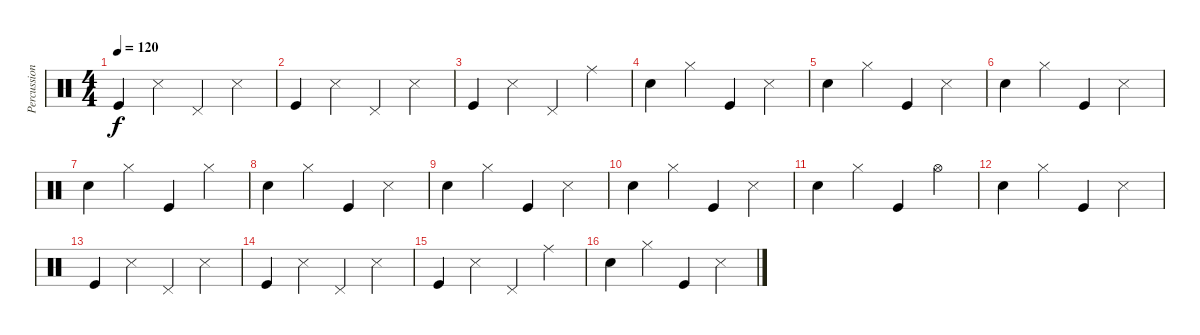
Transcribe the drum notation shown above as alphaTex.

\track ("Percussion" "Percussion") {instrument percussion}
\staff {score}
\articulation defaults
\ts (4 4)
\tempo 120
\clef neutral
\ks c "Kick (hit)".4{dy f} "Snare (side stick) 3".4 "Pedal Hi-Hat (hit)".4 "Snare (side stick) 3".4
|
"Kick (hit)".4 "Snare (side stick) 3".4 "Pedal Hi-Hat (hit)".4 "Snare (side stick) 3".4 |
"Kick (hit)".4 "Snare (side stick) 3".4 "Pedal Hi-Hat (hit)".4 "Ride (middle)".4 |
"Snare (hit) 2".4 "Hi-Hat (closed)".4 "Kick (hit)".4 "Snare (side stick) 3".4 |
"Snare (hit) 2".4 "Hi-Hat (closed)".4 "Kick (hit)".4 "Snare (side stick) 3".4 |
"Snare (hit) 2".4 "Hi-Hat (closed)".4 "Kick (hit)".4 "Snare (side stick) 3".4 |
"Snare (hit) 2".4 "Hi-Hat (closed)".4 "Kick (hit)".4 "Hi-Hat (closed)".4 |
"Snare (hit) 2".4 "Hi-Hat (closed)".4 "Kick (hit)".4 "Snare (side stick) 3".4 |
"Snare (hit) 2".4 "Hi-Hat (closed)".4 "Kick (hit)".4 "Snare (side stick) 3".4 |
"Snare (hit) 2".4 "Hi-Hat (closed)".4 "Kick (hit)".4 "Snare (side stick) 3".4 |
"Snare (hit) 2".4 "Hi-Hat (closed)".4 "Kick (hit)".4 "Hi-Hat (open)".4 |
"Snare (hit) 2".4 "Hi-Hat (closed)".4 "Kick (hit)".4 "Snare (side stick) 3".4 |
"Kick (hit)".4 "Snare (side stick) 3".4 "Pedal Hi-Hat (hit)".4 "Snare (side stick) 3".4 |
"Kick (hit)".4 "Snare (side stick) 3".4 "Pedal Hi-Hat (hit)".4 "Snare (side stick) 3".4 |
"Kick (hit)".4 "Snare (side stick) 3".4 "Pedal Hi-Hat (hit)".4 "Ride (middle)".4 |
"Snare (hit) 2".4 "Hi-Hat (closed)".4 "Kick (hit)".4 "Snare (side stick) 3".4
